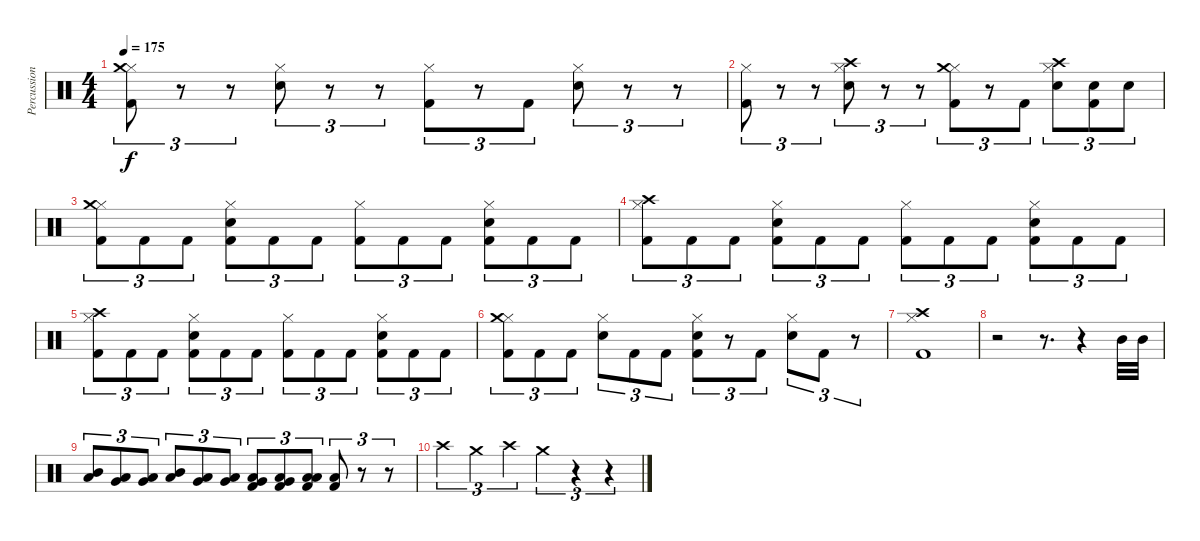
\track ("Percussion" "Percussion") {instrument percussion}
\staff {score}
\articulation defaults
\ts (4 4)
\tempo 175
\clef neutral
\ks c
("Hi-Hat (closed)" "Kick (hit) 2" "Crash medium (hit)").8{tu (3 2) dy f} r.8{tu (3 2)} r.8{tu (3 2)} ("Hi-Hat (closed)" "Electric Snare (hit)").8{tu (3 2)} r.8{tu (3 2)} r.8{tu (3 2)} ("Hi-Hat (closed)" "Kick (hit) 2").8{tu (3 2)} r.8{tu (3 2)} "Kick (hit) 2".8{tu (3 2)} ("Hi-Hat (closed)" "Electric Snare (hit)").8{tu (3 2)} r.8{tu (3 2)} r.8{tu (3 2)} |
("Hi-Hat (closed)" "Kick (hit) 2").8{tu (3 2)} r.8{tu (3 2)} r.8{tu (3 2)} ("Hi-Hat (closed)" "Crash high (hit)" "Electric Snare (hit)").8{tu (3 2)} r.8{tu (3 2)} r.8{tu (3 2)} ("Hi-Hat (closed)" "Crash medium (hit)" "Kick (hit) 2").8{tu (3 2)} r.8{tu (3 2)} "Kick (hit) 2".8{tu (3 2)} ("Hi-Hat (closed)" "Crash high (hit)" "Electric Snare (hit)").8{tu (3 2)} ("Kick (hit) 2" "Electric Snare (hit)").8{tu (3 2)} "Electric Snare (hit)".8{tu (3 2)} |
("Hi-Hat (closed)" "Kick (hit) 2" "Crash medium (hit)").8{tu (3 2)} "Kick (hit) 2".8{tu (3 2)} "Kick (hit) 2".8{tu (3 2)} ("Hi-Hat (closed)" "Kick (hit) 2" "Electric Snare (hit)").8{tu (3 2)} "Kick (hit) 2".8{tu (3 2)} "Kick (hit) 2".8{tu (3 2)} ("Hi-Hat (closed)" "Kick (hit) 2").8{tu (3 2)} "Kick (hit) 2".8{tu (3 2)} "Kick (hit) 2".8{tu (3 2)} ("Hi-Hat (closed)" "Kick (hit) 2" "Electric Snare (hit)").8{tu (3 2)} "Kick (hit) 2".8{tu (3 2)} "Kick (hit) 2".8{tu (3 2)} |
("Hi-Hat (closed)" "Kick (hit) 2" "Crash high (hit)").8{tu (3 2)} "Kick (hit) 2".8{tu (3 2)} "Kick (hit) 2".8{tu (3 2)} ("Hi-Hat (closed)" "Kick (hit) 2" "Electric Snare (hit)").8{tu (3 2)} "Kick (hit) 2".8{tu (3 2)} "Kick (hit) 2".8{tu (3 2)} ("Hi-Hat (closed)" "Kick (hit) 2").8{tu (3 2)} "Kick (hit) 2".8{tu (3 2)} "Kick (hit) 2".8{tu (3 2)} ("Hi-Hat (closed)" "Kick (hit) 2" "Electric Snare (hit)").8{tu (3 2)} "Kick (hit) 2".8{tu (3 2)} "Kick (hit) 2".8{tu (3 2)} |
("Hi-Hat (closed)" "Kick (hit) 2" "Crash high (hit)").8{tu (3 2)} "Kick (hit) 2".8{tu (3 2)} "Kick (hit) 2".8{tu (3 2)} ("Hi-Hat (closed)" "Kick (hit) 2" "Electric Snare (hit)").8{tu (3 2)} "Kick (hit) 2".8{tu (3 2)} "Kick (hit) 2".8{tu (3 2)} ("Hi-Hat (closed)" "Kick (hit) 2").8{tu (3 2)} "Kick (hit) 2".8{tu (3 2)} "Kick (hit) 2".8{tu (3 2)} ("Hi-Hat (closed)" "Kick (hit) 2" "Electric Snare (hit)").8{tu (3 2)} "Kick (hit) 2".8{tu (3 2)} "Kick (hit) 2".8{tu (3 2)} |
("Hi-Hat (closed)" "Kick (hit) 2" "Crash medium (hit)").8{tu (3 2)} "Kick (hit) 2".8{tu (3 2)} "Kick (hit) 2".8{tu (3 2)} ("Hi-Hat (closed)" "Electric Snare (hit)").8{tu (3 2)} "Kick (hit) 2".8{tu (3 2)} "Kick (hit) 2".8{tu (3 2)} ("Hi-Hat (closed)" "Kick (hit) 2" "Electric Snare (hit)").8{tu (3 2)} r.8{tu (3 2)} "Kick (hit) 2".8{tu (3 2)} ("Hi-Hat (closed)" "Electric Snare (hit)").8{tu (3 2)} "Kick (hit) 2".8{tu (3 2)} r.8{tu (3 2)} |
("Hi-Hat (closed)" "Crash high (hit)" "Kick (hit) 2").1 |
r.2 r.8{d} r.4 "Mid Tom (hit)".32 "Mid Tom (hit)".32 |
("Mid Tom (hit)" "Low Tom (hit)").8{tu (3 2)} ("Low Tom (hit)" "Very Low Tom (hit)").8{tu (3 2)} ("Low Tom (hit)" "Very Low Tom (hit)").8{tu (3 2)} ("Mid Tom (hit)" "Low Tom (hit)").8{tu (3 2)} ("Low Tom (hit)" "Very Low Tom (hit)").8{tu (3 2)} ("Very Low Tom (hit)" "Low Floor Tom (hit)").8{tu (3 2)} ("Kick (hit) 2" "Low Tom (hit)" "Very Low Tom (hit)").8{tu (3 2)} ("Kick (hit) 2" "Very Low Tom (hit)" "Low Floor Tom (hit)").8{tu (3 2)} ("Kick (hit) 2" "Low Floor Tom (hit)" "Low Floor Tom (hit)").8{tu (3 2)} ("Kick (hit) 2" "Low Floor Tom (hit)").8{tu (3 2)} r.8{tu (3 2)} r.8{tu (3 2)} |
"Crash high (hit)".4{tu (3 2)} "Crash medium (hit)".4{tu (3 2)} "Crash high (hit)".4{tu (3 2)} "Crash medium (hit)".4{tu (3 2)} r.4{tu (3 2)} r.4{tu (3 2)}
